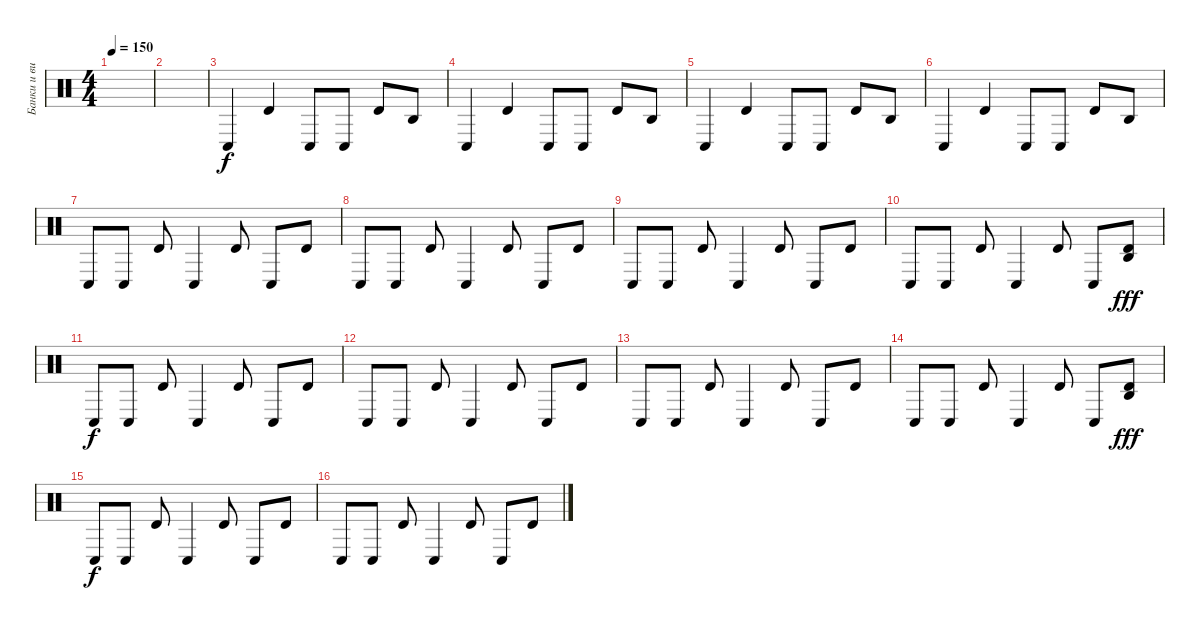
\track ("Банки и вилка на коленках" "Банки и ви") {instrument percussion}
\staff {score}
\articulation defaults
\ts (4 4)
\tempo 150
\clef neutral
\ks aminor
|
|
"Conga low (hit)".4 "Timbale high (hit)".4 "Conga low (hit)".8 "Conga low (hit)".8 "Timbale high (hit)".8 "Agogo high (hit)".8 |
"Conga low (hit)".4 "Timbale high (hit)".4 "Conga low (hit)".8 "Conga low (hit)".8 "Timbale high (hit)".8 "Agogo high (hit)".8 |
"Conga low (hit)".4 "Timbale high (hit)".4 "Conga low (hit)".8 "Conga low (hit)".8 "Timbale high (hit)".8 "Agogo high (hit)".8 |
"Conga low (hit)".4 "Timbale high (hit)".4 "Conga low (hit)".8 "Conga low (hit)".8 "Timbale high (hit)".8 "Agogo high (hit)".8 |
"Conga low (hit)".8 "Conga low (hit)".8 "Timbale high (hit)".8 "Conga low (hit)".4 "Timbale high (hit)".8 "Conga low (hit)".8 "Timbale high (hit)".8 |
"Conga low (hit)".8 "Conga low (hit)".8 "Timbale high (hit)".8 "Conga low (hit)".4 "Timbale high (hit)".8 "Conga low (hit)".8 "Timbale high (hit)".8 |
"Conga low (hit)".8 "Conga low (hit)".8 "Timbale high (hit)".8 "Conga low (hit)".4 "Timbale high (hit)".8 "Conga low (hit)".8 "Timbale high (hit)".8 |
"Conga low (hit)".8 "Conga low (hit)".8 "Timbale high (hit)".8 "Conga low (hit)".4 "Timbale high (hit)".8 "Conga low (hit)".8 ("Timbale high (hit)" "Agogo high (hit)").8{dy fff} |
"Conga low (hit)".8{dy f} "Conga low (hit)".8 "Timbale high (hit)".8 "Conga low (hit)".4 "Timbale high (hit)".8 "Conga low (hit)".8 "Timbale high (hit)".8 |
"Conga low (hit)".8 "Conga low (hit)".8 "Timbale high (hit)".8 "Conga low (hit)".4 "Timbale high (hit)".8 "Conga low (hit)".8 "Timbale high (hit)".8 |
"Conga low (hit)".8 "Conga low (hit)".8 "Timbale high (hit)".8 "Conga low (hit)".4 "Timbale high (hit)".8 "Conga low (hit)".8 "Timbale high (hit)".8 |
"Conga low (hit)".8 "Conga low (hit)".8 "Timbale high (hit)".8 "Conga low (hit)".4 "Timbale high (hit)".8 "Conga low (hit)".8 ("Timbale high (hit)" "Agogo high (hit)").8{dy fff} |
"Conga low (hit)".8{dy f} "Conga low (hit)".8 "Timbale high (hit)".8 "Conga low (hit)".4 "Timbale high (hit)".8 "Conga low (hit)".8 "Timbale high (hit)".8 |
"Conga low (hit)".8 "Conga low (hit)".8 "Timbale high (hit)".8 "Conga low (hit)".4 "Timbale high (hit)".8 "Conga low (hit)".8 "Timbale high (hit)".8
